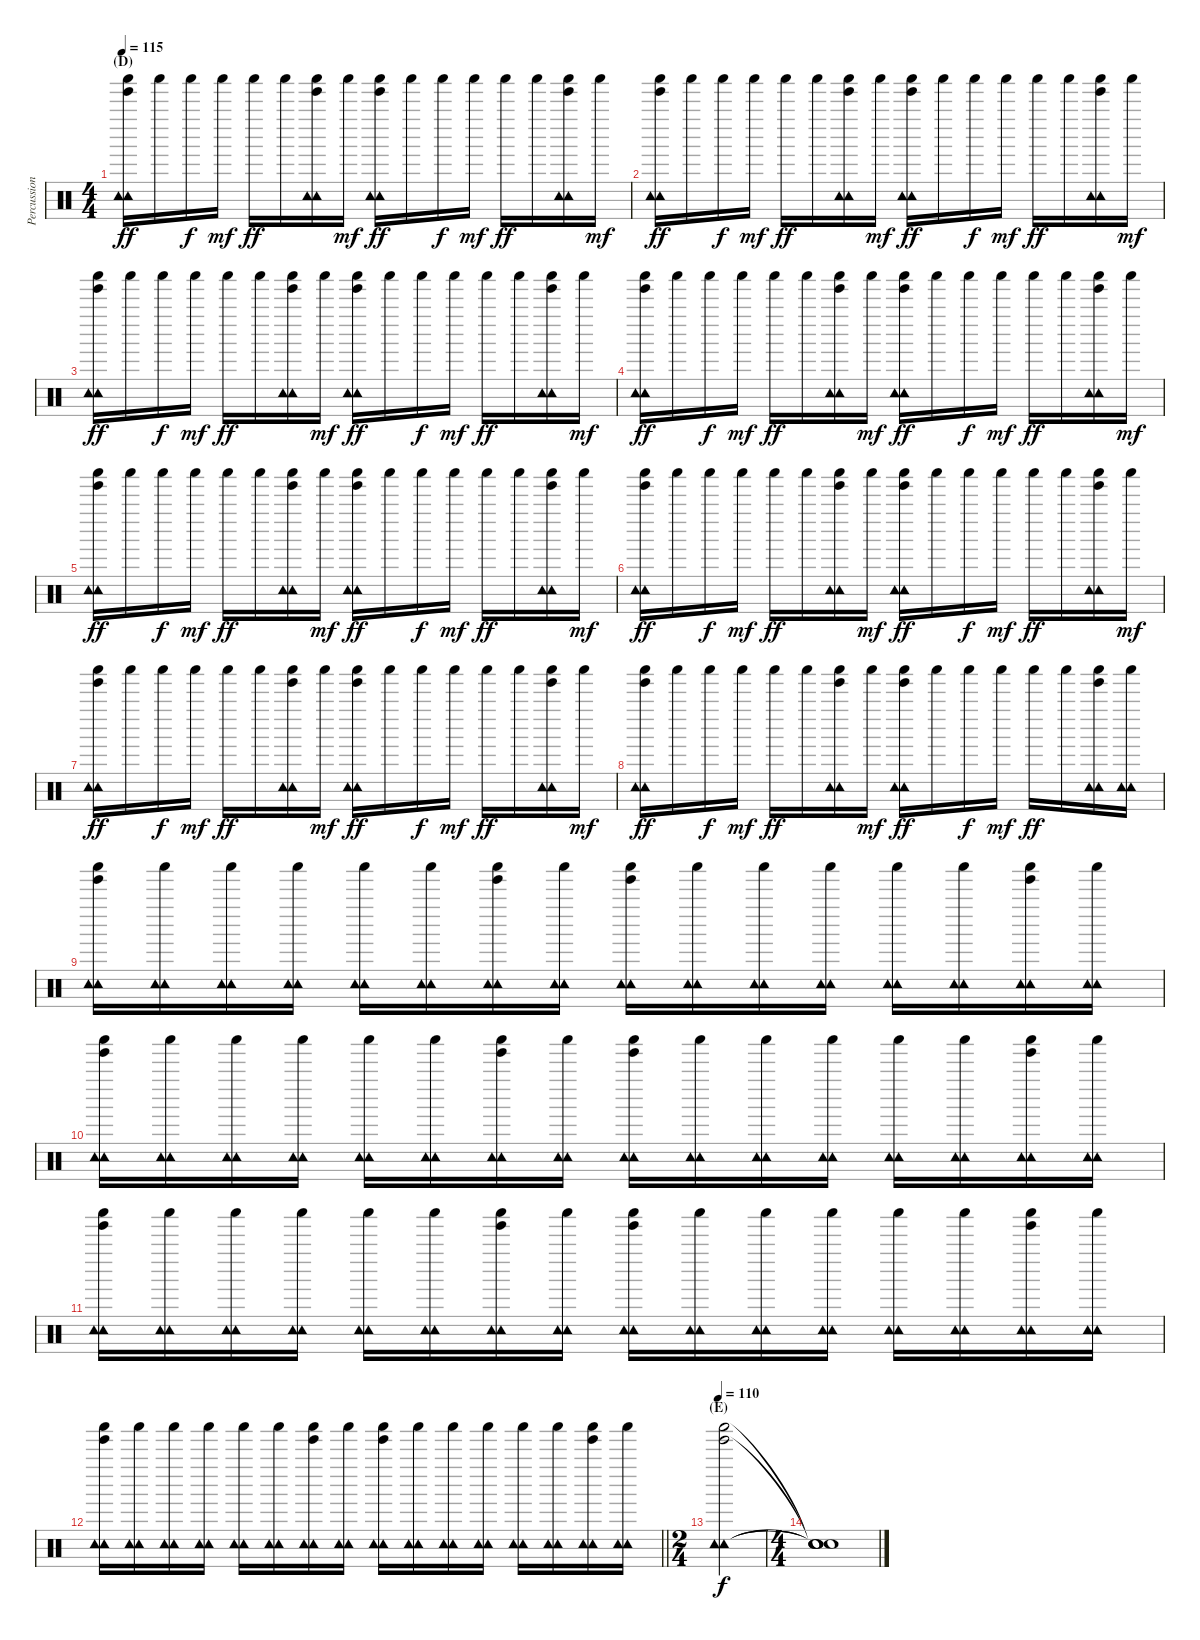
\track ("Percussion" "Percussion") {instrument percussion}
\staff {score}
\articulation defaults
\ts (4 4)
\section ("" "(D)")
\tempo 115
\clef neutral
\ks c
("Shaker (hit)" "Tambourine (hit)" "Tambourine (hit)" "Tinkle Bell (hit)").16{dy ff} "Shaker (hit)".16 "Shaker (hit)".16{dy f} "Shaker (hit)".16{dy mf} "Shaker (hit)".16{dy ff} "Shaker (hit)".16 ("Shaker (hit)" "Tambourine (hit)" "Tambourine (hit)" "Tinkle Bell (hit)").16 "Shaker (hit)".16{dy mf} ("Shaker (hit)" "Tambourine (hit)" "Tambourine (hit)" "Tinkle Bell (hit)").16{dy ff} "Shaker (hit)".16 "Shaker (hit)".16{dy f} "Shaker (hit)".16{dy mf} "Shaker (hit)".16{dy ff} "Shaker (hit)".16 ("Shaker (hit)" "Tambourine (hit)" "Tambourine (hit)" "Tinkle Bell (hit)").16 "Shaker (hit)".16{dy mf} |
("Shaker (hit)" "Tambourine (hit)" "Tambourine (hit)" "Tinkle Bell (hit)").16{dy ff} "Shaker (hit)".16 "Shaker (hit)".16{dy f} "Shaker (hit)".16{dy mf} "Shaker (hit)".16{dy ff} "Shaker (hit)".16 ("Shaker (hit)" "Tambourine (hit)" "Tambourine (hit)" "Tinkle Bell (hit)").16 "Shaker (hit)".16{dy mf} ("Shaker (hit)" "Tambourine (hit)" "Tambourine (hit)" "Tinkle Bell (hit)").16{dy ff} "Shaker (hit)".16 "Shaker (hit)".16{dy f} "Shaker (hit)".16{dy mf} "Shaker (hit)".16{dy ff} "Shaker (hit)".16 ("Shaker (hit)" "Tambourine (hit)" "Tambourine (hit)" "Tinkle Bell (hit)").16 "Shaker (hit)".16{dy mf} |
("Shaker (hit)" "Tambourine (hit)" "Tambourine (hit)" "Tinkle Bell (hit)").16{dy ff} "Shaker (hit)".16 "Shaker (hit)".16{dy f} "Shaker (hit)".16{dy mf} "Shaker (hit)".16{dy ff} "Shaker (hit)".16 ("Shaker (hit)" "Tambourine (hit)" "Tambourine (hit)" "Tinkle Bell (hit)").16 "Shaker (hit)".16{dy mf} ("Shaker (hit)" "Tambourine (hit)" "Tambourine (hit)" "Tinkle Bell (hit)").16{dy ff} "Shaker (hit)".16 "Shaker (hit)".16{dy f} "Shaker (hit)".16{dy mf} "Shaker (hit)".16{dy ff} "Shaker (hit)".16 ("Shaker (hit)" "Tambourine (hit)" "Tambourine (hit)" "Tinkle Bell (hit)").16 "Shaker (hit)".16{dy mf} |
("Shaker (hit)" "Tambourine (hit)" "Tambourine (hit)" "Tinkle Bell (hit)").16{dy ff} "Shaker (hit)".16 "Shaker (hit)".16{dy f} "Shaker (hit)".16{dy mf} "Shaker (hit)".16{dy ff} "Shaker (hit)".16 ("Shaker (hit)" "Tambourine (hit)" "Tambourine (hit)" "Tinkle Bell (hit)").16 "Shaker (hit)".16{dy mf} ("Shaker (hit)" "Tambourine (hit)" "Tambourine (hit)" "Tinkle Bell (hit)").16{dy ff} "Shaker (hit)".16 "Shaker (hit)".16{dy f} "Shaker (hit)".16{dy mf} "Shaker (hit)".16{dy ff} "Shaker (hit)".16 ("Shaker (hit)" "Tambourine (hit)" "Tambourine (hit)" "Tinkle Bell (hit)").16 "Shaker (hit)".16{dy mf} |
("Shaker (hit)" "Tambourine (hit)" "Tambourine (hit)" "Tinkle Bell (hit)").16{dy ff} "Shaker (hit)".16 "Shaker (hit)".16{dy f} "Shaker (hit)".16{dy mf} "Shaker (hit)".16{dy ff} "Shaker (hit)".16 ("Shaker (hit)" "Tambourine (hit)" "Tambourine (hit)" "Tinkle Bell (hit)").16 "Shaker (hit)".16{dy mf} ("Shaker (hit)" "Tambourine (hit)" "Tambourine (hit)" "Tinkle Bell (hit)").16{dy ff} "Shaker (hit)".16 "Shaker (hit)".16{dy f} "Shaker (hit)".16{dy mf} "Shaker (hit)".16{dy ff} "Shaker (hit)".16 ("Shaker (hit)" "Tambourine (hit)" "Tambourine (hit)" "Tinkle Bell (hit)").16 "Shaker (hit)".16{dy mf} |
("Shaker (hit)" "Tambourine (hit)" "Tambourine (hit)" "Tinkle Bell (hit)").16{dy ff} "Shaker (hit)".16 "Shaker (hit)".16{dy f} "Shaker (hit)".16{dy mf} "Shaker (hit)".16{dy ff} "Shaker (hit)".16 ("Shaker (hit)" "Tambourine (hit)" "Tambourine (hit)" "Tinkle Bell (hit)").16 "Shaker (hit)".16{dy mf} ("Shaker (hit)" "Tambourine (hit)" "Tambourine (hit)" "Tinkle Bell (hit)").16{dy ff} "Shaker (hit)".16 "Shaker (hit)".16{dy f} "Shaker (hit)".16{dy mf} "Shaker (hit)".16{dy ff} "Shaker (hit)".16 ("Shaker (hit)" "Tambourine (hit)" "Tambourine (hit)" "Tinkle Bell (hit)").16 "Shaker (hit)".16{dy mf} |
("Shaker (hit)" "Tambourine (hit)" "Tambourine (hit)" "Tinkle Bell (hit)").16{dy ff} "Shaker (hit)".16 "Shaker (hit)".16{dy f} "Shaker (hit)".16{dy mf} "Shaker (hit)".16{dy ff} "Shaker (hit)".16 ("Shaker (hit)" "Tambourine (hit)" "Tambourine (hit)" "Tinkle Bell (hit)").16 "Shaker (hit)".16{dy mf} ("Shaker (hit)" "Tambourine (hit)" "Tambourine (hit)" "Tinkle Bell (hit)").16{dy ff} "Shaker (hit)".16 "Shaker (hit)".16{dy f} "Shaker (hit)".16{dy mf} "Shaker (hit)".16{dy ff} "Shaker (hit)".16 ("Shaker (hit)" "Tambourine (hit)" "Tambourine (hit)" "Tinkle Bell (hit)").16 "Shaker (hit)".16{dy mf} |
("Shaker (hit)" "Tambourine (hit)" "Tambourine (hit)" "Tinkle Bell (hit)").16{dy ff} "Shaker (hit)".16 "Shaker (hit)".16{dy f} "Shaker (hit)".16{dy mf} "Shaker (hit)".16{dy ff} "Shaker (hit)".16 ("Shaker (hit)" "Tambourine (hit)" "Tambourine (hit)" "Tinkle Bell (hit)").16 "Shaker (hit)".16{dy mf} ("Shaker (hit)" "Tambourine (hit)" "Tambourine (hit)" "Tinkle Bell (hit)").16{dy ff} "Shaker (hit)".16 "Shaker (hit)".16{dy f} "Shaker (hit)".16{dy mf} "Shaker (hit)".16{dy ff} "Shaker (hit)".16 ("Shaker (hit)" "Tambourine (hit)" "Tambourine (hit)" "Tinkle Bell (hit)").16 ("Shaker (hit)" "Tambourine (hit)" "Tambourine (hit)").16 |
("Shaker (hit)" "Tambourine (hit)" "Tambourine (hit)" "Tinkle Bell (hit)").16 ("Shaker (hit)" "Tambourine (hit)" "Tambourine (hit)").16 ("Shaker (hit)" "Tambourine (hit)" "Tambourine (hit)").16 ("Shaker (hit)" "Tambourine (hit)" "Tambourine (hit)").16 ("Shaker (hit)" "Tambourine (hit)" "Tambourine (hit)").16 ("Shaker (hit)" "Tambourine (hit)" "Tambourine (hit)").16 ("Shaker (hit)" "Tambourine (hit)" "Tambourine (hit)" "Tinkle Bell (hit)").16 ("Shaker (hit)" "Tambourine (hit)" "Tambourine (hit)").16 ("Shaker (hit)" "Tambourine (hit)" "Tambourine (hit)" "Tinkle Bell (hit)").16 ("Shaker (hit)" "Tambourine (hit)" "Tambourine (hit)").16 ("Shaker (hit)" "Tambourine (hit)" "Tambourine (hit)").16 ("Shaker (hit)" "Tambourine (hit)" "Tambourine (hit)").16 ("Shaker (hit)" "Tambourine (hit)" "Tambourine (hit)").16 ("Shaker (hit)" "Tambourine (hit)" "Tambourine (hit)").16 ("Shaker (hit)" "Tambourine (hit)" "Tambourine (hit)" "Tinkle Bell (hit)").16 ("Shaker (hit)" "Tambourine (hit)" "Tambourine (hit)").16 |
("Shaker (hit)" "Tambourine (hit)" "Tambourine (hit)" "Tinkle Bell (hit)").16 ("Shaker (hit)" "Tambourine (hit)" "Tambourine (hit)").16 ("Shaker (hit)" "Tambourine (hit)" "Tambourine (hit)").16 ("Shaker (hit)" "Tambourine (hit)" "Tambourine (hit)").16 ("Shaker (hit)" "Tambourine (hit)" "Tambourine (hit)").16 ("Shaker (hit)" "Tambourine (hit)" "Tambourine (hit)").16 ("Shaker (hit)" "Tambourine (hit)" "Tambourine (hit)" "Tinkle Bell (hit)").16 ("Shaker (hit)" "Tambourine (hit)" "Tambourine (hit)").16 ("Shaker (hit)" "Tambourine (hit)" "Tambourine (hit)" "Tinkle Bell (hit)").16 ("Shaker (hit)" "Tambourine (hit)" "Tambourine (hit)").16 ("Shaker (hit)" "Tambourine (hit)" "Tambourine (hit)").16 ("Shaker (hit)" "Tambourine (hit)" "Tambourine (hit)").16 ("Shaker (hit)" "Tambourine (hit)" "Tambourine (hit)").16 ("Shaker (hit)" "Tambourine (hit)" "Tambourine (hit)").16 ("Shaker (hit)" "Tambourine (hit)" "Tambourine (hit)" "Tinkle Bell (hit)").16 ("Shaker (hit)" "Tambourine (hit)" "Tambourine (hit)").16 |
("Shaker (hit)" "Tambourine (hit)" "Tambourine (hit)" "Tinkle Bell (hit)").16 ("Shaker (hit)" "Tambourine (hit)" "Tambourine (hit)").16 ("Shaker (hit)" "Tambourine (hit)" "Tambourine (hit)").16 ("Shaker (hit)" "Tambourine (hit)" "Tambourine (hit)").16 ("Shaker (hit)" "Tambourine (hit)" "Tambourine (hit)").16 ("Shaker (hit)" "Tambourine (hit)" "Tambourine (hit)").16 ("Shaker (hit)" "Tambourine (hit)" "Tambourine (hit)" "Tinkle Bell (hit)").16 ("Shaker (hit)" "Tambourine (hit)" "Tambourine (hit)").16 ("Shaker (hit)" "Tambourine (hit)" "Tambourine (hit)" "Tinkle Bell (hit)").16 ("Shaker (hit)" "Tambourine (hit)" "Tambourine (hit)").16 ("Shaker (hit)" "Tambourine (hit)" "Tambourine (hit)").16 ("Shaker (hit)" "Tambourine (hit)" "Tambourine (hit)").16 ("Shaker (hit)" "Tambourine (hit)" "Tambourine (hit)").16 ("Shaker (hit)" "Tambourine (hit)" "Tambourine (hit)").16 ("Shaker (hit)" "Tambourine (hit)" "Tambourine (hit)" "Tinkle Bell (hit)").16 ("Shaker (hit)" "Tambourine (hit)" "Tambourine (hit)").16 |
\barLineRight lightlight
("Shaker (hit)" "Tambourine (hit)" "Tambourine (hit)" "Tinkle Bell (hit)").16 ("Shaker (hit)" "Tambourine (hit)" "Tambourine (hit)").16 ("Shaker (hit)" "Tambourine (hit)" "Tambourine (hit)").16 ("Shaker (hit)" "Tambourine (hit)" "Tambourine (hit)").16 ("Shaker (hit)" "Tambourine (hit)" "Tambourine (hit)").16 ("Shaker (hit)" "Tambourine (hit)" "Tambourine (hit)").16 ("Shaker (hit)" "Tambourine (hit)" "Tambourine (hit)" "Tinkle Bell (hit)").16 ("Shaker (hit)" "Tambourine (hit)" "Tambourine (hit)").16 ("Shaker (hit)" "Tambourine (hit)" "Tambourine (hit)" "Tinkle Bell (hit)").16 ("Shaker (hit)" "Tambourine (hit)" "Tambourine (hit)").16 ("Shaker (hit)" "Tambourine (hit)" "Tambourine (hit)").16 ("Shaker (hit)" "Tambourine (hit)" "Tambourine (hit)").16 ("Shaker (hit)" "Tambourine (hit)" "Tambourine (hit)").16 ("Shaker (hit)" "Tambourine (hit)" "Tambourine (hit)").16 ("Shaker (hit)" "Tambourine (hit)" "Tambourine (hit)" "Tinkle Bell (hit)").16 ("Shaker (hit)" "Tambourine (hit)" "Tambourine (hit)").16 |
\ts (2 4)
\section ("" "(E)")
\tempo 110
("Shaker (hit)" "Tambourine (hit)" "Tambourine (hit)" "Tinkle Bell (hit)").2{dy f} |
\ts (4 4)
("Snare (hit)"{t} "Snare (hit)"{t} "Snare (hit)"{t} "Snare (hit)"{t}).1
